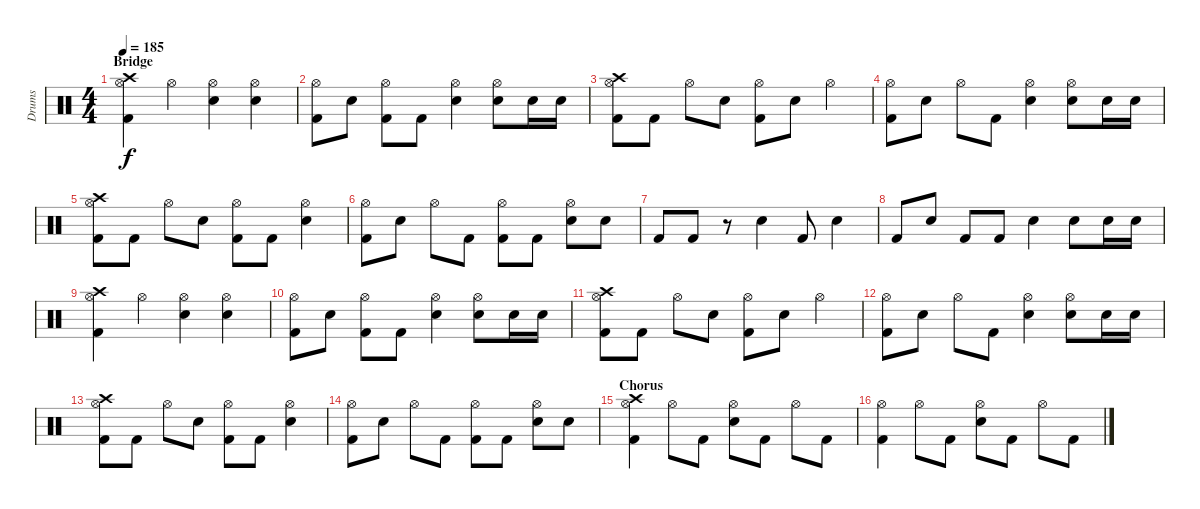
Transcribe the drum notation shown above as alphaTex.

\track ("Drums" "Drums") {instrument percussion}
\staff {score}
\articulation defaults
\ts (4 4)
\section ("" "Bridge")
\tempo 185
\clef neutral
\ks c
("Hi-Hat (open)" "Kick (hit) 2" "Crash high (hit)").4{dy f} "Hi-Hat (open)".4 ("Hi-Hat (open)" "Electric Snare (hit)").4 ("Hi-Hat (open)" "Electric Snare (hit)").4 |
("Hi-Hat (open)" "Kick (hit) 2").8 "Electric Snare (hit)".8 ("Hi-Hat (open)" "Kick (hit) 2").8 "Kick (hit) 2".8 ("Hi-Hat (open)" "Electric Snare (hit)").4 ("Hi-Hat (open)" "Electric Snare (hit)").8 "Electric Snare (hit)".16 "Electric Snare (hit)".16 |
("Hi-Hat (open)" "Kick (hit) 2" "Crash high (hit)").8 "Kick (hit) 2".8 "Hi-Hat (open)".8 "Electric Snare (hit)".8 ("Hi-Hat (open)" "Kick (hit) 2").8 "Electric Snare (hit)".8 "Hi-Hat (open)".4 |
("Hi-Hat (open)" "Kick (hit) 2").8 "Electric Snare (hit)".8 "Hi-Hat (open)".8 "Kick (hit) 2".8 ("Hi-Hat (open)" "Electric Snare (hit)").4 ("Hi-Hat (open)" "Electric Snare (hit)").8 "Electric Snare (hit)".16 "Electric Snare (hit)".16 |
("Hi-Hat (open)" "Kick (hit) 2" "Crash high (hit)").8 "Kick (hit) 2".8 "Hi-Hat (open)".8 "Electric Snare (hit)".8 ("Hi-Hat (open)" "Kick (hit) 2").8 "Kick (hit) 2".8 ("Hi-Hat (open)" "Electric Snare (hit)").4 |
("Hi-Hat (open)" "Kick (hit) 2").8 "Electric Snare (hit)".8 "Hi-Hat (open)".8 "Kick (hit) 2".8 ("Hi-Hat (open)" "Kick (hit) 2").8 "Kick (hit) 2".8 ("Hi-Hat (open)" "Electric Snare (hit)").8 "Electric Snare (hit)".8 |
"Kick (hit) 2".8 "Kick (hit) 2".8 r.8 "Electric Snare (hit)".4 "Kick (hit) 2".8 "Electric Snare (hit)".4 |
"Kick (hit) 2".8 "Electric Snare (hit)".8 "Kick (hit) 2".8 "Kick (hit) 2".8 "Electric Snare (hit)".4 "Electric Snare (hit)".8 "Electric Snare (hit)".16 "Electric Snare (hit)".16 |
("Hi-Hat (open)" "Kick (hit) 2" "Crash high (hit)").4 "Hi-Hat (open)".4 ("Hi-Hat (open)" "Electric Snare (hit)").4 ("Hi-Hat (open)" "Electric Snare (hit)").4 |
("Hi-Hat (open)" "Kick (hit) 2").8 "Electric Snare (hit)".8 ("Hi-Hat (open)" "Kick (hit) 2").8 "Kick (hit) 2".8 ("Hi-Hat (open)" "Electric Snare (hit)").4 ("Hi-Hat (open)" "Electric Snare (hit)").8 "Electric Snare (hit)".16 "Electric Snare (hit)".16 |
("Hi-Hat (open)" "Kick (hit) 2" "Crash high (hit)").8 "Kick (hit) 2".8 "Hi-Hat (open)".8 "Electric Snare (hit)".8 ("Hi-Hat (open)" "Kick (hit) 2").8 "Electric Snare (hit)".8 "Hi-Hat (open)".4 |
("Hi-Hat (open)" "Kick (hit) 2").8 "Electric Snare (hit)".8 "Hi-Hat (open)".8 "Kick (hit) 2".8 ("Hi-Hat (open)" "Electric Snare (hit)").4 ("Hi-Hat (open)" "Electric Snare (hit)").8 "Electric Snare (hit)".16 "Electric Snare (hit)".16 |
("Hi-Hat (open)" "Kick (hit) 2" "Crash high (hit)").8 "Kick (hit) 2".8 "Hi-Hat (open)".8 "Electric Snare (hit)".8 ("Hi-Hat (open)" "Kick (hit) 2").8 "Kick (hit) 2".8 ("Hi-Hat (open)" "Electric Snare (hit)").4 |
("Hi-Hat (open)" "Kick (hit) 2").8 "Electric Snare (hit)".8 "Hi-Hat (open)".8 "Kick (hit) 2".8 ("Hi-Hat (open)" "Kick (hit) 2").8 "Kick (hit) 2".8 ("Hi-Hat (open)" "Electric Snare (hit)").8 "Electric Snare (hit)".8 |
\section ("" "Chorus")
("Hi-Hat (open)" "Kick (hit) 2" "Crash high (hit)").4 "Hi-Hat (open)".8 "Kick (hit) 2".8 ("Hi-Hat (open)" "Electric Snare (hit)").8 "Kick (hit) 2".8 "Hi-Hat (open)".8 "Kick (hit) 2".8 |
("Hi-Hat (open)" "Kick (hit) 2").4 "Hi-Hat (open)".8 "Kick (hit) 2".8 ("Hi-Hat (open)" "Electric Snare (hit)").8 "Kick (hit) 2".8 "Hi-Hat (open)".8 "Kick (hit) 2".8
